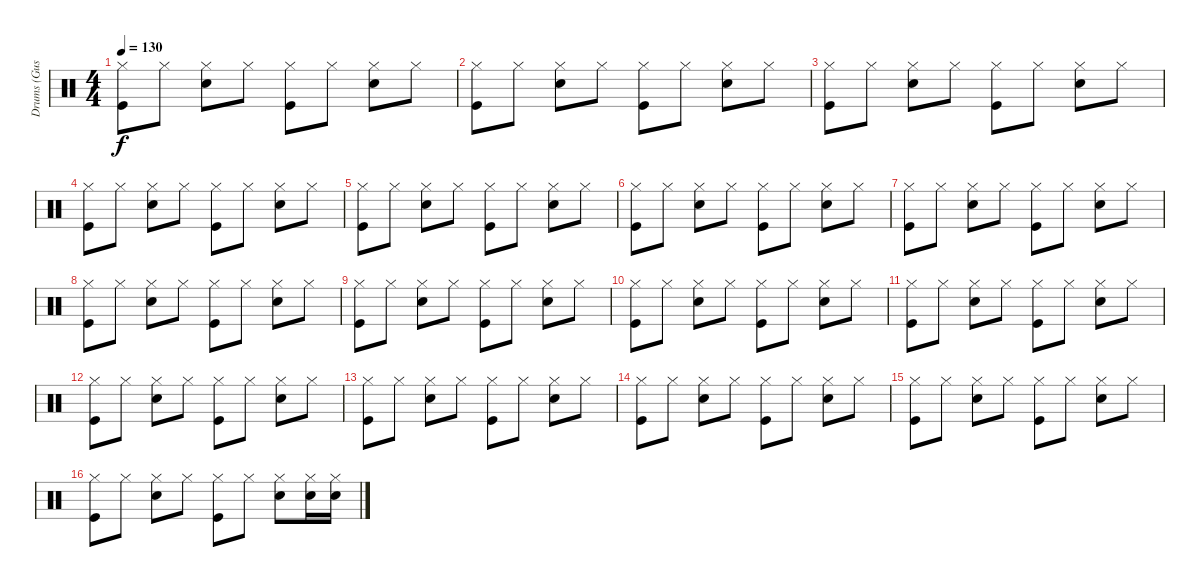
\track ("Drums (Gustav) " "Drums (Gus") {instrument percussion}
\staff {score}
\articulation defaults
\ts (4 4)
\tempo 130
\clef neutral
\ks c
("Kick (hit)" "Hi-Hat (closed)").8{dy f} "Hi-Hat (closed)".8 ("Snare (hit) 2" "Hi-Hat (closed)").8 "Hi-Hat (closed)".8 ("Kick (hit)" "Hi-Hat (closed)").8 "Hi-Hat (closed)".8 ("Snare (hit) 2" "Hi-Hat (closed)").8 "Hi-Hat (closed)".8 |
("Kick (hit)" "Hi-Hat (closed)").8 "Hi-Hat (closed)".8 ("Snare (hit) 2" "Hi-Hat (closed)").8 "Hi-Hat (closed)".8 ("Kick (hit)" "Hi-Hat (closed)").8 "Hi-Hat (closed)".8 ("Snare (hit) 2" "Hi-Hat (closed)").8 "Hi-Hat (closed)".8 |
("Kick (hit)" "Hi-Hat (closed)").8 "Hi-Hat (closed)".8 ("Snare (hit) 2" "Hi-Hat (closed)").8 "Hi-Hat (closed)".8 ("Kick (hit)" "Hi-Hat (closed)").8 "Hi-Hat (closed)".8 ("Snare (hit) 2" "Hi-Hat (closed)").8 "Hi-Hat (closed)".8 |
("Kick (hit)" "Hi-Hat (closed)").8 "Hi-Hat (closed)".8 ("Snare (hit) 2" "Hi-Hat (closed)").8 "Hi-Hat (closed)".8 ("Kick (hit)" "Hi-Hat (closed)").8 "Hi-Hat (closed)".8 ("Snare (hit) 2" "Hi-Hat (closed)").8 "Hi-Hat (closed)".8 |
("Kick (hit)" "Hi-Hat (closed)").8 "Hi-Hat (closed)".8 ("Snare (hit) 2" "Hi-Hat (closed)").8 "Hi-Hat (closed)".8 ("Kick (hit)" "Hi-Hat (closed)").8 "Hi-Hat (closed)".8 ("Snare (hit) 2" "Hi-Hat (closed)").8 "Hi-Hat (closed)".8 |
("Kick (hit)" "Hi-Hat (closed)").8 "Hi-Hat (closed)".8 ("Snare (hit) 2" "Hi-Hat (closed)").8 "Hi-Hat (closed)".8 ("Kick (hit)" "Hi-Hat (closed)").8 "Hi-Hat (closed)".8 ("Snare (hit) 2" "Hi-Hat (closed)").8 "Hi-Hat (closed)".8 |
("Kick (hit)" "Hi-Hat (closed)").8 "Hi-Hat (closed)".8 ("Snare (hit) 2" "Hi-Hat (closed)").8 "Hi-Hat (closed)".8 ("Kick (hit)" "Hi-Hat (closed)").8 "Hi-Hat (closed)".8 ("Snare (hit) 2" "Hi-Hat (closed)").8 "Hi-Hat (closed)".8 |
("Kick (hit)" "Hi-Hat (closed)").8 "Hi-Hat (closed)".8 ("Snare (hit) 2" "Hi-Hat (closed)").8 "Hi-Hat (closed)".8 ("Kick (hit)" "Hi-Hat (closed)").8 "Hi-Hat (closed)".8 ("Snare (hit) 2" "Hi-Hat (closed)").8 "Hi-Hat (closed)".8 |
("Kick (hit)" "Hi-Hat (closed)").8 "Hi-Hat (closed)".8 ("Snare (hit) 2" "Hi-Hat (closed)").8 "Hi-Hat (closed)".8 ("Kick (hit)" "Hi-Hat (closed)").8 "Hi-Hat (closed)".8 ("Snare (hit) 2" "Hi-Hat (closed)").8 "Hi-Hat (closed)".8 |
("Kick (hit)" "Hi-Hat (closed)").8 "Hi-Hat (closed)".8 ("Snare (hit) 2" "Hi-Hat (closed)").8 "Hi-Hat (closed)".8 ("Kick (hit)" "Hi-Hat (closed)").8 "Hi-Hat (closed)".8 ("Snare (hit) 2" "Hi-Hat (closed)").8 "Hi-Hat (closed)".8 |
("Kick (hit)" "Hi-Hat (closed)").8 "Hi-Hat (closed)".8 ("Snare (hit) 2" "Hi-Hat (closed)").8 "Hi-Hat (closed)".8 ("Kick (hit)" "Hi-Hat (closed)").8 "Hi-Hat (closed)".8 ("Snare (hit) 2" "Hi-Hat (closed)").8 "Hi-Hat (closed)".8 |
("Kick (hit)" "Hi-Hat (closed)").8 "Hi-Hat (closed)".8 ("Snare (hit) 2" "Hi-Hat (closed)").8 "Hi-Hat (closed)".8 ("Kick (hit)" "Hi-Hat (closed)").8 "Hi-Hat (closed)".8 ("Snare (hit) 2" "Hi-Hat (closed)").8 "Hi-Hat (closed)".8 |
("Kick (hit)" "Hi-Hat (closed)").8 "Hi-Hat (closed)".8 ("Snare (hit) 2" "Hi-Hat (closed)").8 "Hi-Hat (closed)".8 ("Kick (hit)" "Hi-Hat (closed)").8 "Hi-Hat (closed)".8 ("Snare (hit) 2" "Hi-Hat (closed)").8 "Hi-Hat (closed)".8 |
("Kick (hit)" "Hi-Hat (closed)").8 "Hi-Hat (closed)".8 ("Snare (hit) 2" "Hi-Hat (closed)").8 "Hi-Hat (closed)".8 ("Kick (hit)" "Hi-Hat (closed)").8 "Hi-Hat (closed)".8 ("Snare (hit) 2" "Hi-Hat (closed)").8 "Hi-Hat (closed)".8 |
("Kick (hit)" "Hi-Hat (closed)").8 "Hi-Hat (closed)".8 ("Snare (hit) 2" "Hi-Hat (closed)").8 "Hi-Hat (closed)".8 ("Kick (hit)" "Hi-Hat (closed)").8 "Hi-Hat (closed)".8 ("Snare (hit) 2" "Hi-Hat (closed)").8 "Hi-Hat (closed)".8 |
("Kick (hit)" "Hi-Hat (closed)").8 "Hi-Hat (closed)".8 ("Snare (hit) 2" "Hi-Hat (closed)").8 "Hi-Hat (closed)".8 ("Kick (hit)" "Hi-Hat (closed)").8 "Hi-Hat (closed)".8 ("Snare (hit) 2" "Hi-Hat (closed)").8 ("Snare (hit) 2" "Hi-Hat (closed)").16 ("Snare (hit) 2" "Hi-Hat (closed)").16
